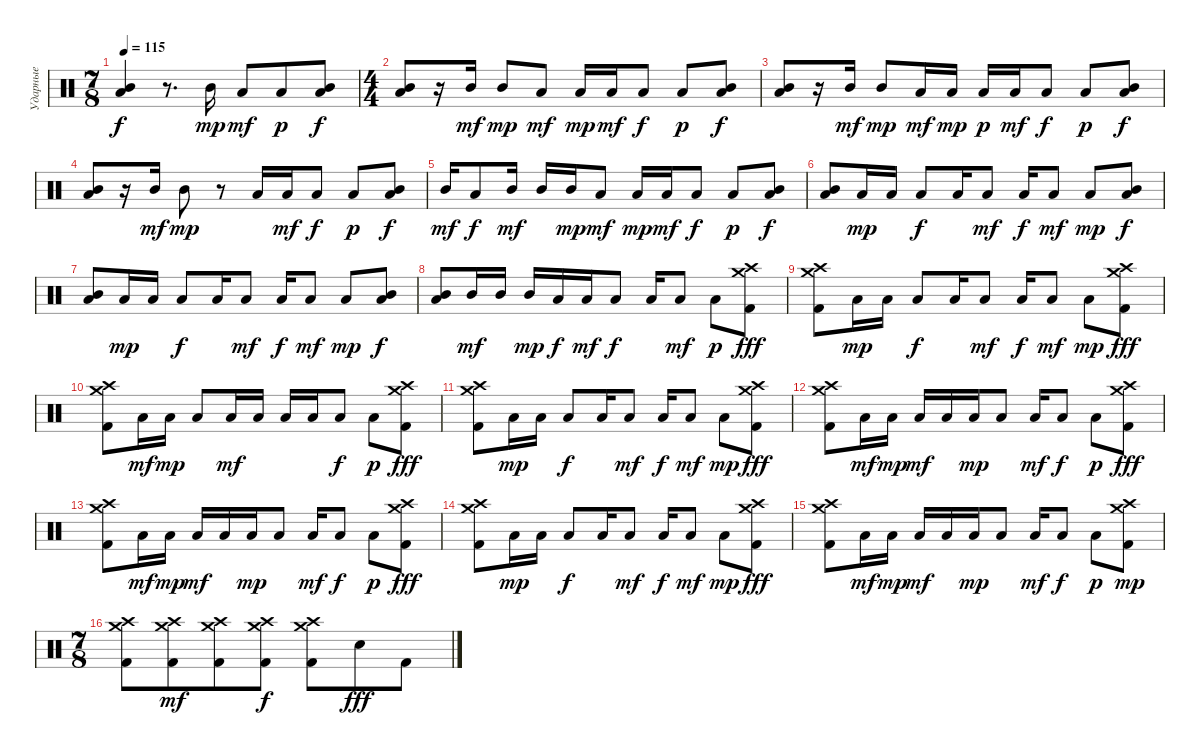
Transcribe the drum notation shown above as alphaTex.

\track ("Ударные" "Ударные") {instrument percussion}
\staff {score}
\articulation defaults
\ts (7 8)
\tempo 115
\clef neutral
\ks c
("Mid Tom (hit)" "Low Floor Tom (hit)").4{dy f} r.8{d} "Mid Tom (hit)".16{dy mp} "Low Floor Tom (hit)".8{dy mf} "Low Floor Tom (hit)".8{dy p} ("Mid Tom (hit)" "Low Floor Tom (hit)").8{dy f} |
\ts (4 4)
("Mid Tom (hit)" "Low Floor Tom (hit)").8 r.16 "Mid Tom (hit)".16{dy mf} "Mid Tom (hit)".8{dy mp} "Low Tom (hit)".8{dy mf} "Low Tom (hit)".16{dy mp} "Low Floor Tom (hit)".16{dy mf} "Low Floor Tom (hit)".8{dy f} "Low Floor Tom (hit)".8{dy p} ("Mid Tom (hit)" "Low Floor Tom (hit)").8{dy f} |
("Mid Tom (hit)" "Low Floor Tom (hit)").8 r.16 "Mid Tom (hit)".16{dy mf} "Mid Tom (hit)".8{dy mp} "Low Tom (hit)".16{dy mf} "Low Tom (hit)".16{dy mp} "Low Tom (hit)".16{dy p} "Low Floor Tom (hit)".16{dy mf} "Low Floor Tom (hit)".8{dy f} "Low Floor Tom (hit)".8{dy p} ("Mid Tom (hit)" "Low Floor Tom (hit)").8{dy f} |
("Mid Tom (hit)" "Low Floor Tom (hit)").8 r.16 "Mid Tom (hit)".16{dy mf} "Mid Tom (hit)".8{dy mp} r.8 "Low Tom (hit)".16 "Low Floor Tom (hit)".16{dy mf} "Low Floor Tom (hit)".8{dy f} "Low Floor Tom (hit)".8{dy p} ("Mid Tom (hit)" "Low Floor Tom (hit)").8{dy f} |
"Mid Tom (hit)".16{dy mf} "Low Floor Tom (hit)".8{dy f} "Mid Tom (hit)".16{dy mf} "Mid Tom (hit)".16 "Mid Tom (hit)".16{dy mp} "Low Tom (hit)".8{dy mf} "Low Tom (hit)".16{dy mp} "Low Floor Tom (hit)".16{dy mf} "Low Floor Tom (hit)".8{dy f} "Low Floor Tom (hit)".8{dy p} ("Mid Tom (hit)" "Low Floor Tom (hit)").8{dy f} |
("Mid Tom (hit)" "Low Floor Tom (hit)").8 "Low Floor Tom (hit)".16{dy mp} "Low Floor Tom (hit)".16 "Low Floor Tom (hit)".8{dy f} "Low Floor Tom (hit)".16 "Low Floor Tom (hit)".8{dy mf} "Low Floor Tom (hit)".16{dy f} "Low Floor Tom (hit)".8{dy mf} "Low Floor Tom (hit)".8{dy mp} ("Mid Tom (hit)" "Low Floor Tom (hit)").8{dy f} |
("Mid Tom (hit)" "Low Floor Tom (hit)").8 "Low Floor Tom (hit)".16{dy mp} "Low Floor Tom (hit)".16 "Low Floor Tom (hit)".8{dy f} "Low Floor Tom (hit)".16 "Low Floor Tom (hit)".8{dy mf} "Low Floor Tom (hit)".16{dy f} "Low Floor Tom (hit)".8{dy mf} "Low Floor Tom (hit)".8{dy mp} ("Mid Tom (hit)" "Low Floor Tom (hit)").8{dy f} |
("Mid Tom (hit)" "Low Floor Tom (hit)").8 "Mid Tom (hit)".16{dy mf} "Mid Tom (hit)".16 "Mid Tom (hit)".16{dy mp} "Low Tom (hit)".16{dy f} "Low Tom (hit)".16{dy mf} "Low Floor Tom (hit)".8{dy f} "Low Floor Tom (hit)".16 "Low Floor Tom (hit)".8{dy mf} "Low Floor Tom (hit)".8{dy p} ("Crash high (hit)" "Crash medium (hit)" "Kick (hit) 2").8{dy fff} |
("Crash high (hit)" "Crash medium (hit)" "Kick (hit) 2").8 "Low Floor Tom (hit)".16{dy mp} "Low Floor Tom (hit)".16 "Low Floor Tom (hit)".8{dy f} "Low Floor Tom (hit)".16 "Low Floor Tom (hit)".8{dy mf} "Low Floor Tom (hit)".16{dy f} "Low Floor Tom (hit)".8{dy mf} "Low Floor Tom (hit)".8{dy mp} ("Crash high (hit)" "Crash medium (hit)" "Kick (hit) 2").8{dy fff} |
("Crash high (hit)" "Crash medium (hit)" "Kick (hit) 2").8 "Low Floor Tom (hit)".16{dy mf} "Low Floor Tom (hit)".16{dy mp} "Low Floor Tom (hit)".8 "Low Floor Tom (hit)".16{dy mf} "Low Floor Tom (hit)".16 "Low Floor Tom (hit)".16 "Low Floor Tom (hit)".16 "Low Floor Tom (hit)".8{dy f} "Low Floor Tom (hit)".8{dy p} ("Crash high (hit)" "Crash medium (hit)" "Kick (hit) 2").8{dy fff} |
("Crash high (hit)" "Crash medium (hit)" "Kick (hit) 2").8 "Low Floor Tom (hit)".16{dy mp} "Low Floor Tom (hit)".16 "Low Floor Tom (hit)".8{dy f} "Low Floor Tom (hit)".16 "Low Floor Tom (hit)".8{dy mf} "Low Floor Tom (hit)".16{dy f} "Low Floor Tom (hit)".8{dy mf} "Low Floor Tom (hit)".8{dy mp} ("Crash high (hit)" "Crash medium (hit)" "Kick (hit) 2").8{dy fff} |
("Crash high (hit)" "Crash medium (hit)" "Kick (hit) 2").8 "Low Floor Tom (hit)".16{dy mf} "Low Floor Tom (hit)".16{dy mp} "Low Floor Tom (hit)".16{dy mf} "Low Floor Tom (hit)".16 "Low Floor Tom (hit)".16{dy mp} "Low Floor Tom (hit)".8 "Low Floor Tom (hit)".16{dy mf} "Low Floor Tom (hit)".8{dy f} "Low Floor Tom (hit)".8{dy p} ("Crash high (hit)" "Crash medium (hit)" "Kick (hit) 2").8{dy fff} |
("Crash high (hit)" "Crash medium (hit)" "Kick (hit) 2").8 "Low Floor Tom (hit)".16{dy mf} "Low Floor Tom (hit)".16{dy mp} "Low Floor Tom (hit)".16{dy mf} "Low Floor Tom (hit)".16 "Low Floor Tom (hit)".16{dy mp} "Low Floor Tom (hit)".8 "Low Floor Tom (hit)".16{dy mf} "Low Floor Tom (hit)".8{dy f} "Low Floor Tom (hit)".8{dy p} ("Crash high (hit)" "Crash medium (hit)" "Kick (hit) 2").8{dy fff} |
("Crash high (hit)" "Crash medium (hit)" "Kick (hit) 2").8 "Low Floor Tom (hit)".16{dy mp} "Low Floor Tom (hit)".16 "Low Floor Tom (hit)".8{dy f} "Low Floor Tom (hit)".16 "Low Floor Tom (hit)".8{dy mf} "Low Floor Tom (hit)".16{dy f} "Low Floor Tom (hit)".8{dy mf} "Low Floor Tom (hit)".8{dy mp} ("Crash high (hit)" "Crash medium (hit)" "Kick (hit) 2").8{dy fff} |
("Crash high (hit)" "Crash medium (hit)" "Kick (hit) 2").8 "Low Floor Tom (hit)".16{dy mf} "Low Floor Tom (hit)".16{dy mp} "Low Floor Tom (hit)".16{dy mf} "Low Floor Tom (hit)".16 "Low Floor Tom (hit)".16{dy mp} "Low Floor Tom (hit)".8 "Low Floor Tom (hit)".16{dy mf} "Low Floor Tom (hit)".8{dy f} "Low Floor Tom (hit)".8{dy p} ("Crash high (hit)" "Crash medium (hit)" "Kick (hit) 2").8{dy mp} |
\ts (7 8)
("Crash high (hit)" "Crash medium (hit)" "Kick (hit) 2").8 ("Crash high (hit)" "Crash medium (hit)" "Kick (hit) 2").8{dy mf} ("Crash high (hit)" "Crash medium (hit)" "Kick (hit) 2").8 ("Crash high (hit)" "Crash medium (hit)" "Kick (hit) 2").8{dy f} ("Crash high (hit)" "Crash medium (hit)" "Kick (hit) 2").8 "Electric Snare (hit)".8{dy fff} "Kick (hit) 2".8
